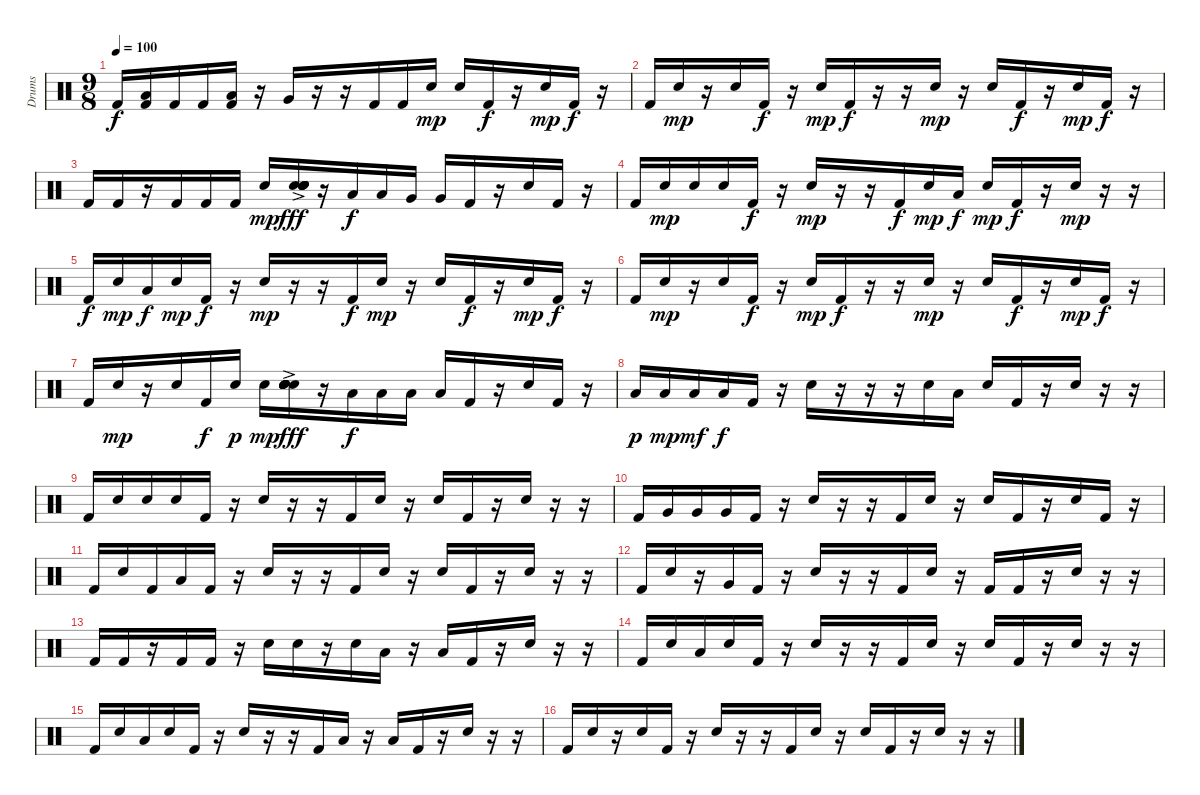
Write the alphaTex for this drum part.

\track ("Drums" "Drums") {instrument percussion}
\staff {score}
\articulation defaults
\ts (9 8)
\tempo 100
\clef neutral
\ks c "Kick (hit) 2".16{dy f}
("Low Floor Tom (hit)" "Kick (hit) 2").16 "Kick (hit) 2".16 "Kick (hit) 2".16 ("Low Floor Tom (hit)" "Kick (hit) 2").16 r.16 "Very Low Tom (hit)".16 r.16 r.16 "Kick (hit) 2".16 "Kick (hit) 2".16 "Electric Snare (hit)".16{dy mp} "Electric Snare (hit)".16 "Kick (hit) 2".16{dy f} r.16 "Electric Snare (hit)".16{dy mp} "Kick (hit) 2".16{dy f} r.16 |
"Kick (hit) 2".16 "Electric Snare (hit)".16{dy mp} r.16 "Electric Snare (hit)".16 "Kick (hit) 2".16{dy f} r.16 "Electric Snare (hit)".16{dy mp} "Kick (hit) 2".16{dy f} r.16 r.16 "Electric Snare (hit)".16{dy mp} r.16 "Electric Snare (hit)".16 "Kick (hit) 2".16{dy f} r.16 "Electric Snare (hit)".16{dy mp} "Kick (hit) 2".16{dy f} r.16 |
"Kick (hit) 2".16 "Kick (hit) 2".16 r.16 "Kick (hit) 2".16 "Kick (hit) 2".16 "Kick (hit) 2".16 "Electric Snare (hit)".16{dy mp} ("Electric Snare (hit)" "Electric Snare (hit)" "Electric Snare (hit)"{ac} "Electric Snare (hit)" "Electric Snare (hit)" "Electric Snare (hit)").16{dy fff} r.16 "Low Floor Tom (hit)".16{dy f} "Low Floor Tom (hit)".16 "Very Low Tom (hit)".16 "Very Low Tom (hit)".16 "Kick (hit) 2".16 r.16 "Electric Snare (hit)".16 "Kick (hit) 2".16 r.16 |
"Kick (hit) 2".16 "Electric Snare (hit)".16{dy mp} "Electric Snare (hit)".16 "Electric Snare (hit)".16 "Kick (hit) 2".16{dy f} r.16 "Electric Snare (hit)".16{dy mp} r.16 r.16 "Kick (hit) 2".16{dy f} "Electric Snare (hit)".16{dy mp} "Low Floor Tom (hit)".16{dy f} "Electric Snare (hit)".16{dy mp} "Kick (hit) 2".16{dy f} r.16 "Electric Snare (hit)".16{dy mp} r.16 r.16 |
"Kick (hit) 2".16{dy f} "Electric Snare (hit)".16{dy mp} "Low Floor Tom (hit)".16{dy f} "Electric Snare (hit)".16{dy mp} "Kick (hit) 2".16{dy f} r.16 "Electric Snare (hit)".16{dy mp} r.16 r.16 "Kick (hit) 2".16{dy f} "Electric Snare (hit)".16{dy mp} r.16 "Electric Snare (hit)".16 "Kick (hit) 2".16{dy f} r.16 "Electric Snare (hit)".16{dy mp} "Kick (hit) 2".16{dy f} r.16 |
"Kick (hit) 2".16 "Electric Snare (hit)".16{dy mp} r.16 "Electric Snare (hit)".16 "Kick (hit) 2".16{dy f} r.16 "Electric Snare (hit)".16{dy mp} "Kick (hit) 2".16{dy f} r.16 r.16 "Electric Snare (hit)".16{dy mp} r.16 "Electric Snare (hit)".16 "Kick (hit) 2".16{dy f} r.16 "Electric Snare (hit)".16{dy mp} "Kick (hit) 2".16{dy f} r.16 |
"Kick (hit) 2".16 "Electric Snare (hit)".16{dy mp} r.16 "Electric Snare (hit)".16 "Kick (hit) 2".16{dy f} "Electric Snare (hit)".16{dy p} "Electric Snare (hit)".16{dy mp} ("Electric Snare (hit)" "Electric Snare (hit)" "Electric Snare (hit)" "Electric Snare (hit)" "Electric Snare (hit)" "Electric Snare (hit)"{ac}).16{dy fff} r.16 "Low Floor Tom (hit)".16{dy f} "Low Floor Tom (hit)".16 "Low Floor Tom (hit)".16 "Low Floor Tom (hit)".16 "Kick (hit) 2".16 r.16 "Electric Snare (hit)".16 "Kick (hit) 2".16 r.16 |
"Low Floor Tom (hit)".16{dy p} "Low Floor Tom (hit)".16{dy mp} "Low Floor Tom (hit)".16{dy mf} "Low Floor Tom (hit)".16{dy f} "Kick (hit) 2".16 r.16 "Electric Snare (hit)".16 r.16 r.16 r.16 "Electric Snare (hit)".16 "Low Floor Tom (hit)".16 "Electric Snare (hit)".16 "Kick (hit) 2".16 r.16 "Electric Snare (hit)".16 r.16 r.16 |
"Kick (hit) 2".16 "Electric Snare (hit)".16 "Electric Snare (hit)".16 "Electric Snare (hit)".16 "Kick (hit) 2".16 r.16 "Electric Snare (hit)".16 r.16 r.16 "Kick (hit) 2".16 "Electric Snare (hit)".16 r.16 "Electric Snare (hit)".16 "Kick (hit) 2".16 r.16 "Electric Snare (hit)".16 r.16 r.16 |
"Kick (hit) 2".16 "Very Low Tom (hit)".16 "Very Low Tom (hit)".16 "Very Low Tom (hit)".16 "Kick (hit) 2".16 r.16 "Electric Snare (hit)".16 r.16 r.16 "Kick (hit) 2".16 "Electric Snare (hit)".16 r.16 "Electric Snare (hit)".16 "Kick (hit) 2".16 r.16 "Electric Snare (hit)".16 "Kick (hit) 2".16 r.16 |
"Kick (hit) 2".16 "Electric Snare (hit)".16 "Kick (hit) 2".16 "Low Floor Tom (hit)".16 "Kick (hit) 2".16 r.16 "Electric Snare (hit)".16 r.16 r.16 "Kick (hit) 2".16 "Electric Snare (hit)".16 r.16 "Electric Snare (hit)".16 "Kick (hit) 2".16 r.16 "Electric Snare (hit)".16 r.16 r.16 |
"Kick (hit) 2".16 "Electric Snare (hit)".16 r.16 "Very Low Tom (hit)".16 "Kick (hit) 2".16 r.16 "Electric Snare (hit)".16 r.16 r.16 "Kick (hit) 2".16 "Electric Snare (hit)".16 r.16 "Kick (hit) 2".16 "Kick (hit) 2".16 r.16 "Electric Snare (hit)".16 r.16 r.16 |
"Kick (hit) 2".16 "Kick (hit) 2".16 r.16 "Kick (hit) 2".16 "Kick (hit) 2".16 r.16 "Electric Snare (hit)".16 "Electric Snare (hit)".16 r.16 "Electric Snare (hit)".16 "Low Floor Tom (hit)".16 r.16 "Low Floor Tom (hit)".16 "Kick (hit) 2".16 r.16 "Electric Snare (hit)".16 r.16 r.16 |
"Kick (hit) 2".16 "Electric Snare (hit)".16 "Low Floor Tom (hit)".16 "Electric Snare (hit)".16 "Kick (hit) 2".16 r.16 "Electric Snare (hit)".16 r.16 r.16 "Kick (hit) 2".16 "Electric Snare (hit)".16 r.16 "Electric Snare (hit)".16 "Kick (hit) 2".16 r.16 "Electric Snare (hit)".16 r.16 r.16 |
"Kick (hit) 2".16 "Electric Snare (hit)".16 "Low Floor Tom (hit)".16 "Electric Snare (hit)".16 "Kick (hit) 2".16 r.16 "Electric Snare (hit)".16 r.16 r.16 "Kick (hit) 2".16 "Low Floor Tom (hit)".16 r.16 "Low Floor Tom (hit)".16 "Kick (hit) 2".16 r.16 "Electric Snare (hit)".16 r.16 r.16 |
"Kick (hit) 2".16 "Electric Snare (hit)".16 r.16 "Electric Snare (hit)".16 "Kick (hit) 2".16 r.16 "Electric Snare (hit)".16 r.16 r.16 "Kick (hit) 2".16 "Electric Snare (hit)".16 r.16 "Electric Snare (hit)".16 "Kick (hit) 2".16 r.16 "Electric Snare (hit)".16 r.16 r.16
